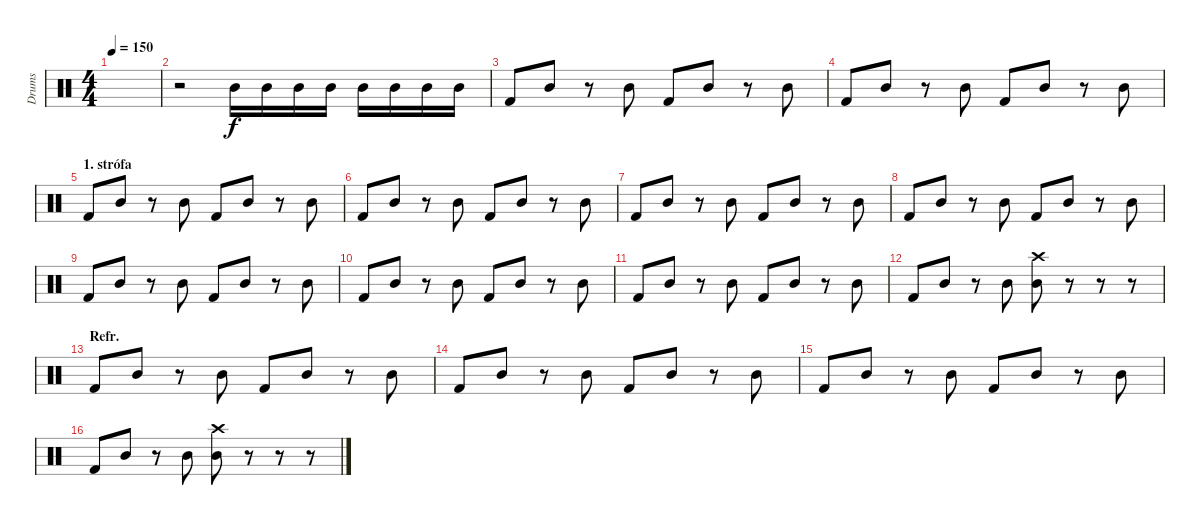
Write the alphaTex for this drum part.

\track ("Drums" "Drums") {instrument percussion}
\staff {score}
\articulation defaults
\ts (4 4)
\tempo 150
\clef neutral
\ks c
|
r.2 "Mid Tom (hit)".16 "Mid Tom (hit)".16 "Mid Tom (hit)".16 "Mid Tom (hit)".16 "Mid Tom (hit)".16 "Mid Tom (hit)".16 "Mid Tom (hit)".16 "Mid Tom (hit)".16 |
"Kick (hit) 2".8 "Mid Tom (hit)".8 r.8 "Mid Tom (hit)".8 "Kick (hit) 2".8 "Mid Tom (hit)".8 r.8 "Mid Tom (hit)".8 |
"Kick (hit) 2".8 "Mid Tom (hit)".8 r.8 "Mid Tom (hit)".8 "Kick (hit) 2".8 "Mid Tom (hit)".8 r.8 "Mid Tom (hit)".8 |
\section ("" "1. strófa")
"Kick (hit) 2".8 "Mid Tom (hit)".8 r.8 "Mid Tom (hit)".8 "Kick (hit) 2".8 "Mid Tom (hit)".8 r.8 "Mid Tom (hit)".8 |
"Kick (hit) 2".8 "Mid Tom (hit)".8 r.8 "Mid Tom (hit)".8 "Kick (hit) 2".8 "Mid Tom (hit)".8 r.8 "Mid Tom (hit)".8 |
"Kick (hit) 2".8 "Mid Tom (hit)".8 r.8 "Mid Tom (hit)".8 "Kick (hit) 2".8 "Mid Tom (hit)".8 r.8 "Mid Tom (hit)".8 |
"Kick (hit) 2".8 "Mid Tom (hit)".8 r.8 "Mid Tom (hit)".8 "Kick (hit) 2".8 "Mid Tom (hit)".8 r.8 "Mid Tom (hit)".8 |
"Kick (hit) 2".8 "Mid Tom (hit)".8 r.8 "Mid Tom (hit)".8 "Kick (hit) 2".8 "Mid Tom (hit)".8 r.8 "Mid Tom (hit)".8 |
"Kick (hit) 2".8 "Mid Tom (hit)".8 r.8 "Mid Tom (hit)".8 "Kick (hit) 2".8 "Mid Tom (hit)".8 r.8 "Mid Tom (hit)".8 |
"Kick (hit) 2".8 "Mid Tom (hit)".8 r.8 "Mid Tom (hit)".8 "Kick (hit) 2".8 "Mid Tom (hit)".8 r.8 "Mid Tom (hit)".8 |
"Kick (hit) 2".8 "Mid Tom (hit)".8 r.8 "Mid Tom (hit)".8 ("Mid Tom (hit)" "Crash high (hit)").8 r.8 r.8 r.8 |
\section ("" "Refr.")
"Kick (hit) 2".8 "Mid Tom (hit)".8 r.8 "Mid Tom (hit)".8 "Kick (hit) 2".8 "Mid Tom (hit)".8 r.8 "Mid Tom (hit)".8 |
"Kick (hit) 2".8 "Mid Tom (hit)".8 r.8 "Mid Tom (hit)".8 "Kick (hit) 2".8 "Mid Tom (hit)".8 r.8 "Mid Tom (hit)".8 |
"Kick (hit) 2".8 "Mid Tom (hit)".8 r.8 "Mid Tom (hit)".8 "Kick (hit) 2".8 "Mid Tom (hit)".8 r.8 "Mid Tom (hit)".8 |
"Kick (hit) 2".8 "Mid Tom (hit)".8 r.8 "Mid Tom (hit)".8 ("Mid Tom (hit)" "Crash high (hit)").8 r.8 r.8 r.8
